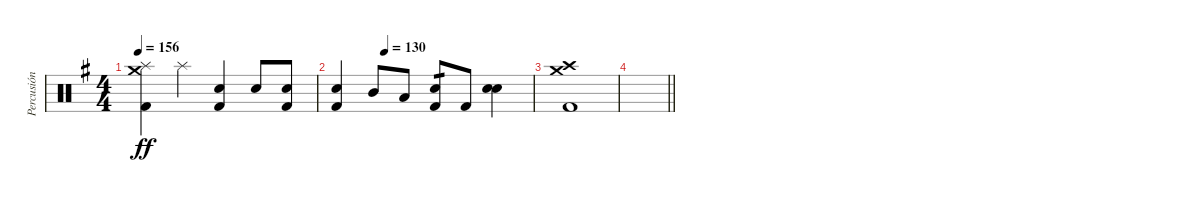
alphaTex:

\track ("Percusión" "Percusión") {instrument percussion}
\staff {score}
\articulation defaults
\ts (4 4)
\tempo 156
\clef neutral
\ks eminor
("Crash medium (hit)" "Splash (hit)" "Kick (hit) 2").4{dy ff} "Splash (hit)".4 ("Electric Snare (hit)" "Kick (hit) 2").4 "Electric Snare (hit)".8 ("Electric Snare (hit)" "Kick (hit) 2").8 |
\tempo (130 0.25)
("Electric Snare (hit)" "Kick (hit) 2").4 "Mid Tom (hit)".8 "Low Tom (hit)".8 ("Electric Snare (hit)" "Kick (hit) 2").8{tp 1} "Kick (hit) 2".8 ("Electric Snare (hit)" "Electric Snare (hit)").4 |
("Crash medium (hit)" "Crash high (hit)" "Kick (hit) 2").1 |
\barLineRight lightlight
